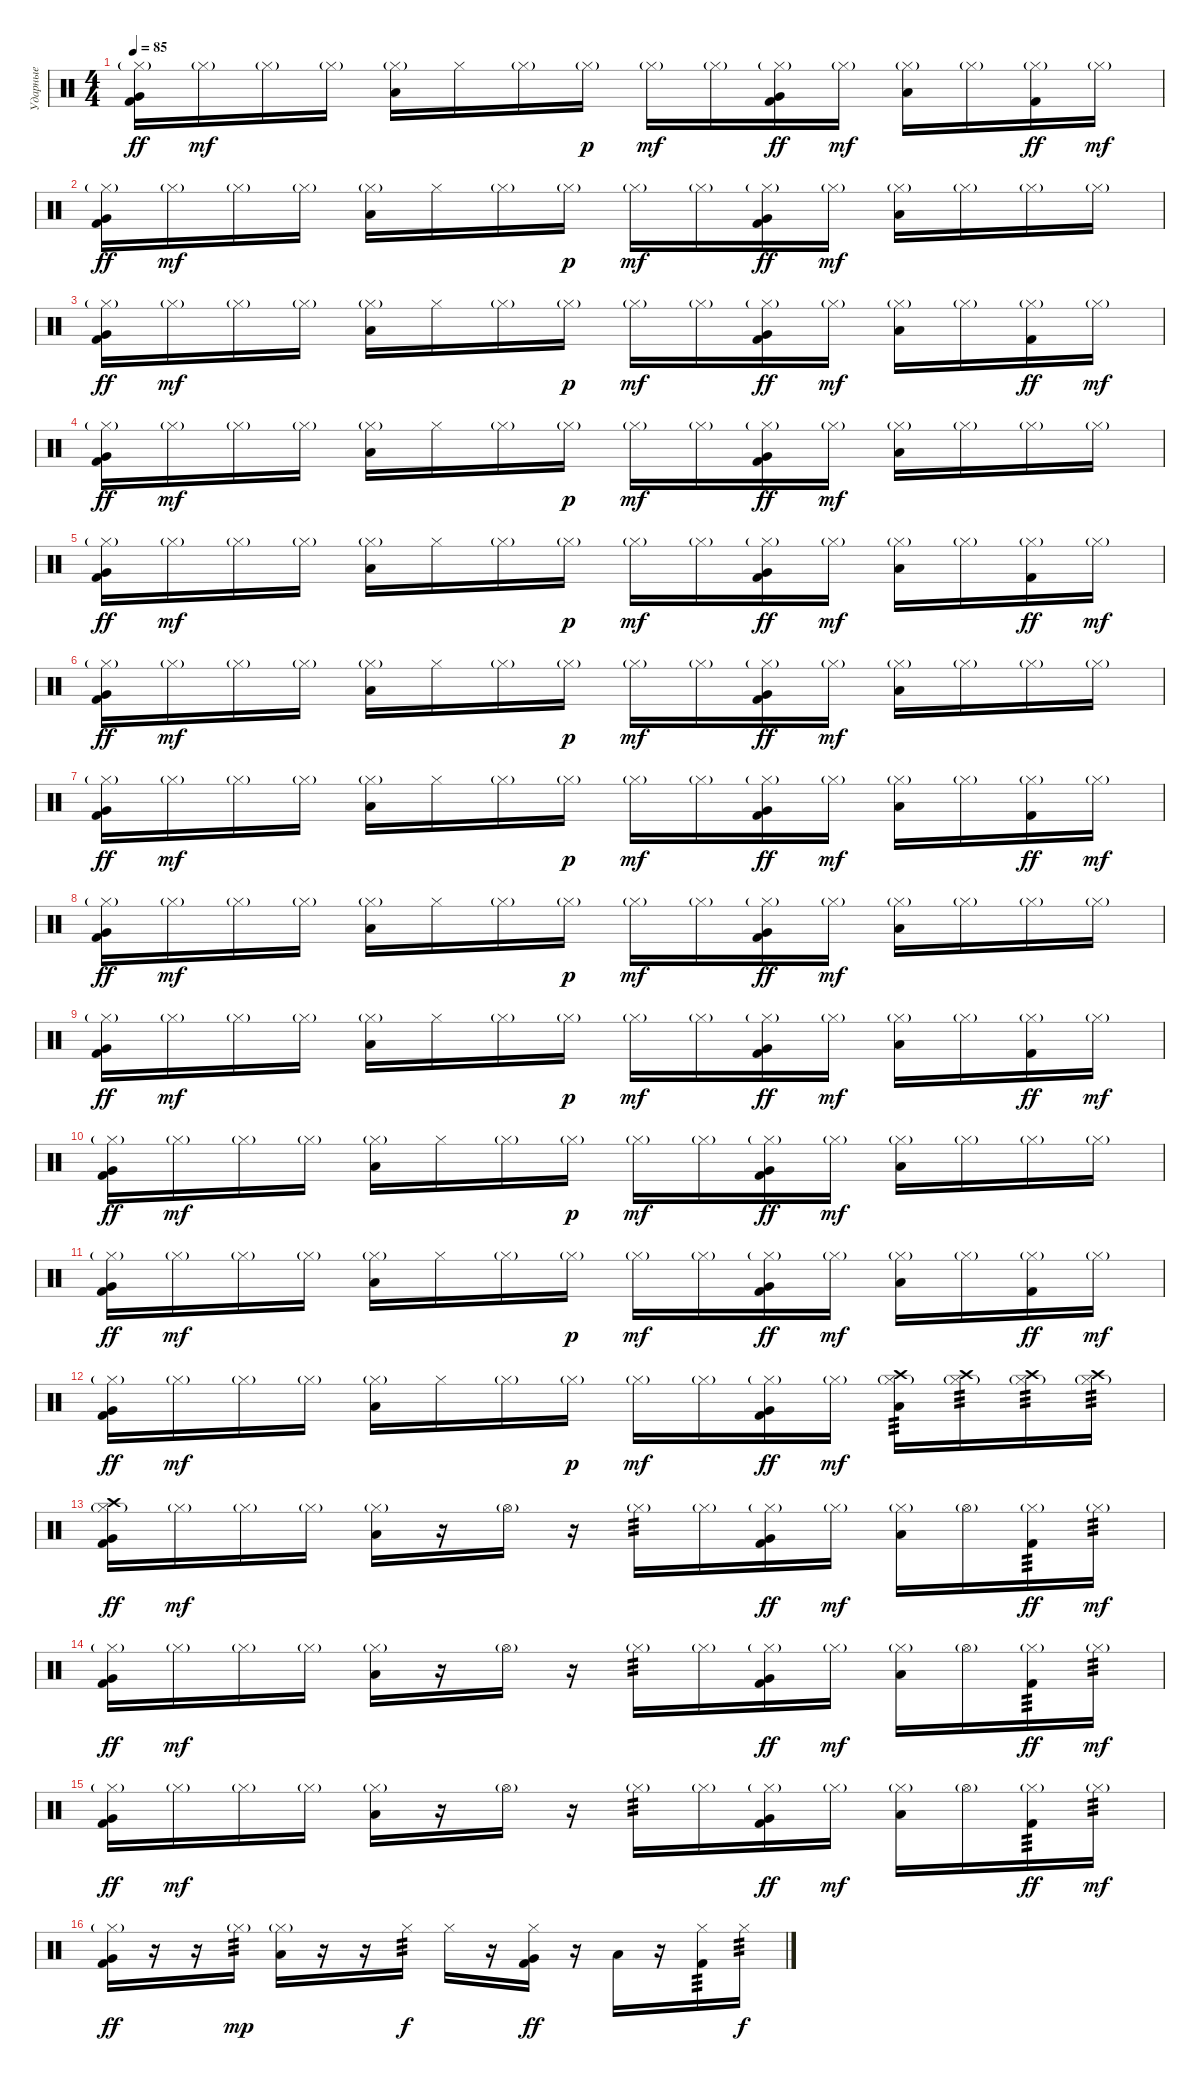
\track ("Ударные" "Ударные") {instrument percussion}
\staff {score}
\articulation defaults
\ts (4 4)
\tempo 85
\clef neutral
\ks c
("Very Low Tom (hit)" "Hi-Hat (closed)"{g} "Kick (hit) 2").16{dy ff} "Hi-Hat (closed)"{g}.16{dy mf} "Hi-Hat (closed)"{g}.16 "Hi-Hat (closed)"{g}.16 ("Low Tom (hit)" "Hi-Hat (closed)"{g}).16 "Hi-Hat (closed)".16 "Hi-Hat (closed)"{g}.16 "Hi-Hat (closed)"{g}.16{dy p} "Hi-Hat (closed)"{g}.16{dy mf} "Hi-Hat (closed)"{g}.16 ("Very Low Tom (hit)" "Hi-Hat (closed)"{g} "Kick (hit) 2").16{dy ff} "Hi-Hat (closed)"{g}.16{dy mf} ("Low Tom (hit)" "Hi-Hat (closed)"{g}).16 "Hi-Hat (closed)"{g}.16 ("Hi-Hat (closed)"{g} "Kick (hit) 2").16{dy ff} "Hi-Hat (closed)"{g}.16{dy mf} |
("Very Low Tom (hit)" "Hi-Hat (closed)"{g} "Kick (hit) 2").16{dy ff} "Hi-Hat (closed)"{g}.16{dy mf} "Hi-Hat (closed)"{g}.16 "Hi-Hat (closed)"{g}.16 ("Low Tom (hit)" "Hi-Hat (closed)"{g}).16 "Hi-Hat (closed)".16 "Hi-Hat (closed)"{g}.16 "Hi-Hat (closed)"{g}.16{dy p} "Hi-Hat (closed)"{g}.16{dy mf} "Hi-Hat (closed)"{g}.16 ("Very Low Tom (hit)" "Hi-Hat (closed)"{g} "Kick (hit) 2").16{dy ff} "Hi-Hat (closed)"{g}.16{dy mf} ("Low Tom (hit)" "Hi-Hat (closed)"{g}).16 "Hi-Hat (closed)"{g}.16 "Hi-Hat (closed)"{g}.16 "Hi-Hat (closed)"{g}.16 |
("Very Low Tom (hit)" "Hi-Hat (closed)"{g} "Kick (hit) 2").16{dy ff} "Hi-Hat (closed)"{g}.16{dy mf} "Hi-Hat (closed)"{g}.16 "Hi-Hat (closed)"{g}.16 ("Low Tom (hit)" "Hi-Hat (closed)"{g}).16 "Hi-Hat (closed)".16 "Hi-Hat (closed)"{g}.16 "Hi-Hat (closed)"{g}.16{dy p} "Hi-Hat (closed)"{g}.16{dy mf} "Hi-Hat (closed)"{g}.16 ("Very Low Tom (hit)" "Hi-Hat (closed)"{g} "Kick (hit) 2").16{dy ff} "Hi-Hat (closed)"{g}.16{dy mf} ("Low Tom (hit)" "Hi-Hat (closed)"{g}).16 "Hi-Hat (closed)"{g}.16 ("Hi-Hat (closed)"{g} "Kick (hit) 2").16{dy ff} "Hi-Hat (closed)"{g}.16{dy mf} |
("Very Low Tom (hit)" "Hi-Hat (closed)"{g} "Kick (hit) 2").16{dy ff} "Hi-Hat (closed)"{g}.16{dy mf} "Hi-Hat (closed)"{g}.16 "Hi-Hat (closed)"{g}.16 ("Low Tom (hit)" "Hi-Hat (closed)"{g}).16 "Hi-Hat (closed)".16 "Hi-Hat (closed)"{g}.16 "Hi-Hat (closed)"{g}.16{dy p} "Hi-Hat (closed)"{g}.16{dy mf} "Hi-Hat (closed)"{g}.16 ("Very Low Tom (hit)" "Hi-Hat (closed)"{g} "Kick (hit) 2").16{dy ff} "Hi-Hat (closed)"{g}.16{dy mf} ("Low Tom (hit)" "Hi-Hat (closed)"{g}).16 "Hi-Hat (closed)"{g}.16 "Hi-Hat (closed)"{g}.16 "Hi-Hat (closed)"{g}.16 |
("Very Low Tom (hit)" "Hi-Hat (closed)"{g} "Kick (hit) 2").16{dy ff} "Hi-Hat (closed)"{g}.16{dy mf} "Hi-Hat (closed)"{g}.16 "Hi-Hat (closed)"{g}.16 ("Low Tom (hit)" "Hi-Hat (closed)"{g}).16 "Hi-Hat (closed)".16 "Hi-Hat (closed)"{g}.16 "Hi-Hat (closed)"{g}.16{dy p} "Hi-Hat (closed)"{g}.16{dy mf} "Hi-Hat (closed)"{g}.16 ("Very Low Tom (hit)" "Hi-Hat (closed)"{g} "Kick (hit) 2").16{dy ff} "Hi-Hat (closed)"{g}.16{dy mf} ("Low Tom (hit)" "Hi-Hat (closed)"{g}).16 "Hi-Hat (closed)"{g}.16 ("Hi-Hat (closed)"{g} "Kick (hit) 2").16{dy ff} "Hi-Hat (closed)"{g}.16{dy mf} |
("Very Low Tom (hit)" "Hi-Hat (closed)"{g} "Kick (hit) 2").16{dy ff} "Hi-Hat (closed)"{g}.16{dy mf} "Hi-Hat (closed)"{g}.16 "Hi-Hat (closed)"{g}.16 ("Low Tom (hit)" "Hi-Hat (closed)"{g}).16 "Hi-Hat (closed)".16 "Hi-Hat (closed)"{g}.16 "Hi-Hat (closed)"{g}.16{dy p} "Hi-Hat (closed)"{g}.16{dy mf} "Hi-Hat (closed)"{g}.16 ("Very Low Tom (hit)" "Hi-Hat (closed)"{g} "Kick (hit) 2").16{dy ff} "Hi-Hat (closed)"{g}.16{dy mf} ("Low Tom (hit)" "Hi-Hat (closed)"{g}).16 "Hi-Hat (closed)"{g}.16 "Hi-Hat (closed)"{g}.16 "Hi-Hat (closed)"{g}.16 |
("Very Low Tom (hit)" "Hi-Hat (closed)"{g} "Kick (hit) 2").16{dy ff} "Hi-Hat (closed)"{g}.16{dy mf} "Hi-Hat (closed)"{g}.16 "Hi-Hat (closed)"{g}.16 ("Low Tom (hit)" "Hi-Hat (closed)"{g}).16 "Hi-Hat (closed)".16 "Hi-Hat (closed)"{g}.16 "Hi-Hat (closed)"{g}.16{dy p} "Hi-Hat (closed)"{g}.16{dy mf} "Hi-Hat (closed)"{g}.16 ("Very Low Tom (hit)" "Hi-Hat (closed)"{g} "Kick (hit) 2").16{dy ff} "Hi-Hat (closed)"{g}.16{dy mf} ("Low Tom (hit)" "Hi-Hat (closed)"{g}).16 "Hi-Hat (closed)"{g}.16 ("Hi-Hat (closed)"{g} "Kick (hit) 2").16{dy ff} "Hi-Hat (closed)"{g}.16{dy mf} |
("Very Low Tom (hit)" "Hi-Hat (closed)"{g} "Kick (hit) 2").16{dy ff} "Hi-Hat (closed)"{g}.16{dy mf} "Hi-Hat (closed)"{g}.16 "Hi-Hat (closed)"{g}.16 ("Low Tom (hit)" "Hi-Hat (closed)"{g}).16 "Hi-Hat (closed)".16 "Hi-Hat (closed)"{g}.16 "Hi-Hat (closed)"{g}.16{dy p} "Hi-Hat (closed)"{g}.16{dy mf} "Hi-Hat (closed)"{g}.16 ("Very Low Tom (hit)" "Hi-Hat (closed)"{g} "Kick (hit) 2").16{dy ff} "Hi-Hat (closed)"{g}.16{dy mf} ("Low Tom (hit)" "Hi-Hat (closed)"{g}).16 "Hi-Hat (closed)"{g}.16 "Hi-Hat (closed)"{g}.16 "Hi-Hat (closed)"{g}.16 |
("Very Low Tom (hit)" "Hi-Hat (closed)"{g} "Kick (hit) 2").16{dy ff} "Hi-Hat (closed)"{g}.16{dy mf} "Hi-Hat (closed)"{g}.16 "Hi-Hat (closed)"{g}.16 ("Low Tom (hit)" "Hi-Hat (closed)"{g}).16 "Hi-Hat (closed)".16 "Hi-Hat (closed)"{g}.16 "Hi-Hat (closed)"{g}.16{dy p} "Hi-Hat (closed)"{g}.16{dy mf} "Hi-Hat (closed)"{g}.16 ("Very Low Tom (hit)" "Hi-Hat (closed)"{g} "Kick (hit) 2").16{dy ff} "Hi-Hat (closed)"{g}.16{dy mf} ("Low Tom (hit)" "Hi-Hat (closed)"{g}).16 "Hi-Hat (closed)"{g}.16 ("Hi-Hat (closed)"{g} "Kick (hit) 2").16{dy ff} "Hi-Hat (closed)"{g}.16{dy mf} |
("Very Low Tom (hit)" "Hi-Hat (closed)"{g} "Kick (hit) 2").16{dy ff} "Hi-Hat (closed)"{g}.16{dy mf} "Hi-Hat (closed)"{g}.16 "Hi-Hat (closed)"{g}.16 ("Low Tom (hit)" "Hi-Hat (closed)"{g}).16 "Hi-Hat (closed)".16 "Hi-Hat (closed)"{g}.16 "Hi-Hat (closed)"{g}.16{dy p} "Hi-Hat (closed)"{g}.16{dy mf} "Hi-Hat (closed)"{g}.16 ("Very Low Tom (hit)" "Hi-Hat (closed)"{g} "Kick (hit) 2").16{dy ff} "Hi-Hat (closed)"{g}.16{dy mf} ("Low Tom (hit)" "Hi-Hat (closed)"{g}).16 "Hi-Hat (closed)"{g}.16 "Hi-Hat (closed)"{g}.16 "Hi-Hat (closed)"{g}.16 |
("Very Low Tom (hit)" "Hi-Hat (closed)"{g} "Kick (hit) 2").16{dy ff} "Hi-Hat (closed)"{g}.16{dy mf} "Hi-Hat (closed)"{g}.16 "Hi-Hat (closed)"{g}.16 ("Low Tom (hit)" "Hi-Hat (closed)"{g}).16 "Hi-Hat (closed)".16 "Hi-Hat (closed)"{g}.16 "Hi-Hat (closed)"{g}.16{dy p} "Hi-Hat (closed)"{g}.16{dy mf} "Hi-Hat (closed)"{g}.16 ("Very Low Tom (hit)" "Hi-Hat (closed)"{g} "Kick (hit) 2").16{dy ff} "Hi-Hat (closed)"{g}.16{dy mf} ("Low Tom (hit)" "Hi-Hat (closed)"{g}).16 "Hi-Hat (closed)"{g}.16 ("Hi-Hat (closed)"{g} "Kick (hit) 2").16{dy ff} "Hi-Hat (closed)"{g}.16{dy mf} |
("Very Low Tom (hit)" "Hi-Hat (closed)"{g} "Kick (hit) 2").16{dy ff} "Hi-Hat (closed)"{g}.16{dy mf} "Hi-Hat (closed)"{g}.16 "Hi-Hat (closed)"{g}.16 ("Low Tom (hit)" "Hi-Hat (closed)"{g}).16 "Hi-Hat (closed)".16 "Hi-Hat (closed)"{g}.16 "Hi-Hat (closed)"{g}.16{dy p} "Hi-Hat (closed)"{g}.16{dy mf} "Hi-Hat (closed)"{g}.16 ("Very Low Tom (hit)" "Hi-Hat (closed)"{g} "Kick (hit) 2").16{dy ff} "Hi-Hat (closed)"{g}.16{dy mf} ("Crash high (hit)" "Low Tom (hit)" "Hi-Hat (closed)"{g}).16{tp 3} ("Crash high (hit)" "Hi-Hat (closed)"{g}).16{tp 3} ("Crash high (hit)" "Hi-Hat (closed)"{g}).16{tp 3} ("Crash high (hit)" "Hi-Hat (closed)"{g}).16{tp 3} |
("Crash high (hit)" "Very Low Tom (hit)" "Hi-Hat (closed)"{g} "Kick (hit) 2").16{dy ff} "Hi-Hat (closed)"{g}.16{dy mf} "Hi-Hat (closed)"{g}.16 "Hi-Hat (closed)"{g}.16 ("Low Tom (hit)" "Hi-Hat (closed)"{g}).16 r.16 "Hi-Hat (open)"{g}.16 r.16 "Hi-Hat (closed)"{g}.16{tp 3} "Hi-Hat (closed)"{g}.16 ("Very Low Tom (hit)" "Hi-Hat (closed)"{g} "Kick (hit) 2").16{dy ff} "Hi-Hat (closed)"{g}.16{dy mf} ("Low Tom (hit)" "Hi-Hat (closed)"{g}).16 "Hi-Hat (open)"{g}.16 ("Hi-Hat (closed)"{g} "Kick (hit) 2").16{tp 3 dy ff} "Hi-Hat (closed)"{g}.16{tp 3 dy mf} |
("Very Low Tom (hit)" "Hi-Hat (closed)"{g} "Kick (hit) 2").16{dy ff} "Hi-Hat (closed)"{g}.16{dy mf} "Hi-Hat (closed)"{g}.16 "Hi-Hat (closed)"{g}.16 ("Low Tom (hit)" "Hi-Hat (closed)"{g}).16 r.16 "Hi-Hat (open)"{g}.16 r.16 "Hi-Hat (closed)"{g}.16{tp 3} "Hi-Hat (closed)"{g}.16 ("Very Low Tom (hit)" "Hi-Hat (closed)"{g} "Kick (hit) 2").16{dy ff} "Hi-Hat (closed)"{g}.16{dy mf} ("Low Tom (hit)" "Hi-Hat (closed)"{g}).16 "Hi-Hat (open)"{g}.16 ("Hi-Hat (closed)"{g} "Kick (hit) 2").16{tp 3 dy ff} "Hi-Hat (closed)"{g}.16{tp 3 dy mf} |
("Very Low Tom (hit)" "Hi-Hat (closed)"{g} "Kick (hit) 2").16{dy ff} "Hi-Hat (closed)"{g}.16{dy mf} "Hi-Hat (closed)"{g}.16 "Hi-Hat (closed)"{g}.16 ("Low Tom (hit)" "Hi-Hat (closed)"{g}).16 r.16 "Hi-Hat (open)"{g}.16 r.16 "Hi-Hat (closed)"{g}.16{tp 3} "Hi-Hat (closed)"{g}.16 ("Very Low Tom (hit)" "Hi-Hat (closed)"{g} "Kick (hit) 2").16{dy ff} "Hi-Hat (closed)"{g}.16{dy mf} ("Low Tom (hit)" "Hi-Hat (closed)"{g}).16 "Hi-Hat (open)"{g}.16 ("Hi-Hat (closed)"{g} "Kick (hit) 2").16{tp 3 dy ff} "Hi-Hat (closed)"{g}.16{tp 3 dy mf} |
("Very Low Tom (hit)" "Hi-Hat (closed)"{g} "Kick (hit) 2").16{dy ff} r.16 r.16 "Hi-Hat (closed)"{g}.16{tp 3 dy mp} ("Low Tom (hit)" "Hi-Hat (closed)"{g}).16 r.16 r.16 "Hi-Hat (closed)".16{tp 3 dy f} "Hi-Hat (closed)".16 r.16 ("Very Low Tom (hit)" "Hi-Hat (closed)" "Kick (hit) 2").16{dy ff} r.16 "Low Tom (hit)".16 r.16 ("Hi-Hat (closed)" "Kick (hit) 2").16{tp 3} "Hi-Hat (closed)".16{tp 3 dy f}
